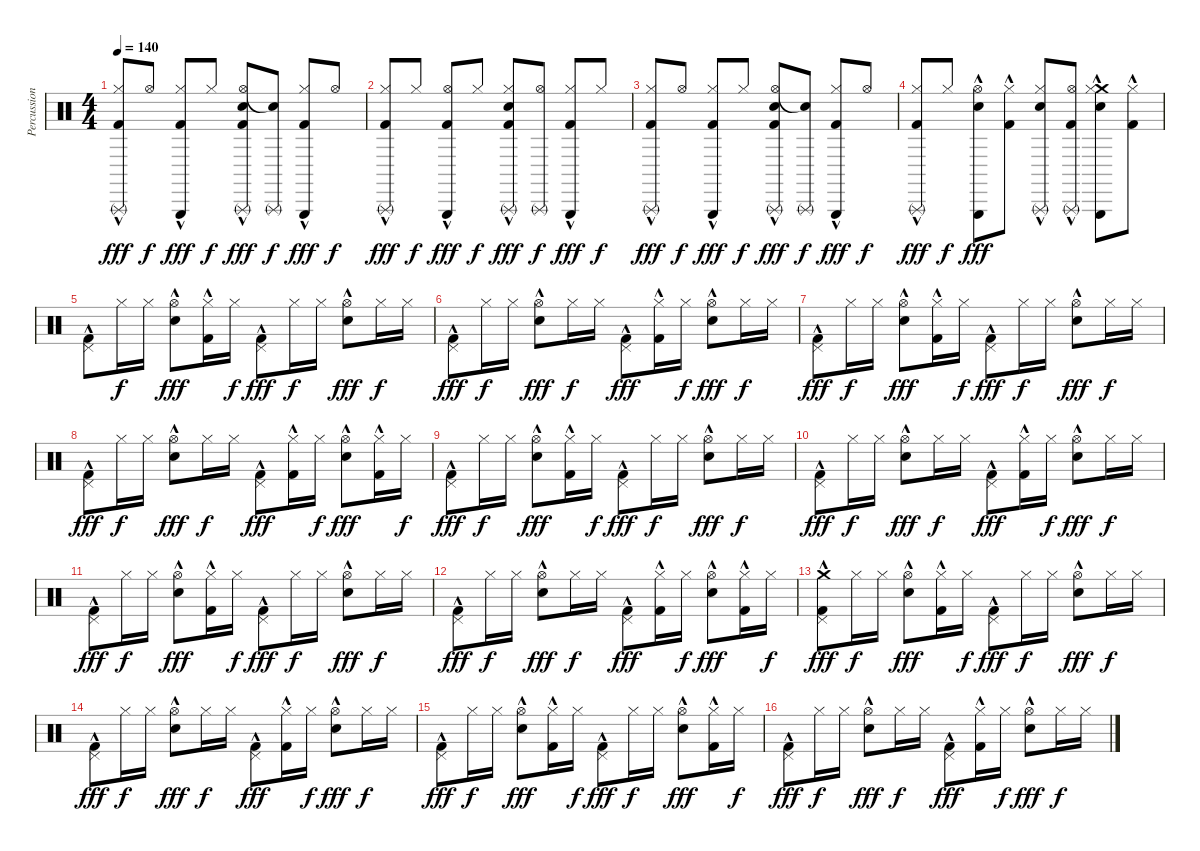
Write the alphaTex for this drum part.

\track ("Percussion" "Percussion") {instrument percussion}
\staff {score}
\articulation defaults
\ts (4 4)
\tempo 140
\clef neutral
\ks c
("Triangle (rnute)" "Hi-Hat (closed)" "Kick (hit) 2"{hac}).8{dy fff} "Hi-Hat (open)".8{dy f} ("Triangle (hit)" "Hi-Hat (closed)" "Kick (hit) 2"{hac}).8{dy fff} "Hi-Hat (closed)".8{dy f} ("Triangle (rnute)" "Hi-Hat (open)" "Electric Snare (hit)"{hac} "Kick (hit) 2"{hac}).8{dy fff} ("Triangle (rnute)" "Snare (hit)"{t}).8{dy f} ("Triangle (hit)" "Hi-Hat (closed)" "Kick (hit) 2"{hac}).8{dy fff} "Hi-Hat (open)".8{dy f} |
("Triangle (rnute)" "Hi-Hat (closed)" "Kick (hit) 2"{hac}).8{dy fff} "Hi-Hat (closed)".8{dy f} ("Triangle (hit)" "Hi-Hat (open)" "Kick (hit) 2"{hac}).8{dy fff} "Hi-Hat (closed)".8{dy f} ("Triangle (rnute)" "Hi-Hat (closed)" "Electric Snare (hit)"{hac} "Kick (hit) 2"{hac}).8{dy fff} ("Triangle (rnute)" "Hi-Hat (open)").8{dy f} ("Triangle (hit)" "Hi-Hat (closed)" "Kick (hit) 2"{hac}).8{dy fff} "Hi-Hat (closed)".8{dy f} |
("Triangle (rnute)" "Hi-Hat (closed)" "Kick (hit) 2"{hac}).8{dy fff} "Hi-Hat (open)".8{dy f} ("Triangle (hit)" "Hi-Hat (closed)" "Kick (hit) 2"{hac}).8{dy fff} "Hi-Hat (closed)".8{dy f} ("Triangle (rnute)" "Hi-Hat (open)" "Electric Snare (hit)"{hac} "Kick (hit) 2"{hac}).8{dy fff} ("Triangle (rnute)" "Snare (hit)"{t}).8{dy f} ("Triangle (hit)" "Hi-Hat (closed)" "Kick (hit) 2"{hac}).8{dy fff} "Hi-Hat (open)".8{dy f} |
("Triangle (rnute)" "Hi-Hat (closed)" "Kick (hit) 2"{hac}).8{dy fff} "Hi-Hat (closed)".8{dy f} ("Triangle (hit)" "Hi-Hat (open)" "Electric Snare (hit)"{hac}).8{dy fff} ("Hi-Hat (closed)" "Kick (hit) 2"{hac}).8 ("Triangle (rnute)" "Hi-Hat (closed)" "Electric Snare (hit)"{hac}).8 ("Triangle (rnute)" "Hi-Hat (open)" "Kick (hit) 2"{hac}).8 ("Crash medium (hit)"{hac} "Triangle (hit)" "Hi-Hat (closed)" "Electric Snare (hit)"{hac}).8 ("Hi-Hat (closed)" "Kick (hit) 2"{hac}).8 |
("Pedal Hi-Hat (hit)" "Kick (hit) 2"{hac}).8 "Hi-Hat (closed)".16{dy f} "Hi-Hat (closed)".16 ("Hi-Hat (open)" "Electric Snare (hit)"{hac}).8{dy fff} ("Hi-Hat (closed)" "Kick (hit) 2"{hac}).16 "Hi-Hat (closed)".16{dy f} ("Pedal Hi-Hat (hit)" "Kick (hit) 2"{hac}).8{dy fff} "Hi-Hat (closed)".16{dy f} "Hi-Hat (closed)".16 ("Hi-Hat (open)" "Electric Snare (hit)"{hac}).8{dy fff} "Hi-Hat (closed)".16{dy f} "Hi-Hat (closed)".16 |
("Pedal Hi-Hat (hit)" "Kick (hit) 2"{hac}).8{dy fff} "Hi-Hat (closed)".16{dy f} "Hi-Hat (closed)".16 ("Hi-Hat (open)" "Electric Snare (hit)"{hac}).8{dy fff} "Hi-Hat (closed)".16{dy f} "Hi-Hat (closed)".16 ("Pedal Hi-Hat (hit)" "Kick (hit) 2"{hac}).8{dy fff} ("Hi-Hat (closed)" "Kick (hit) 2"{hac}).16 "Hi-Hat (closed)".16{dy f} ("Hi-Hat (open)" "Electric Snare (hit)"{hac}).8{dy fff} "Hi-Hat (closed)".16{dy f} "Hi-Hat (closed)".16 |
("Pedal Hi-Hat (hit)" "Kick (hit) 2"{hac}).8{dy fff} "Hi-Hat (closed)".16{dy f} "Hi-Hat (closed)".16 ("Hi-Hat (open)" "Electric Snare (hit)"{hac}).8{dy fff} ("Hi-Hat (closed)" "Kick (hit) 2"{hac}).16 "Hi-Hat (closed)".16{dy f} ("Pedal Hi-Hat (hit)" "Kick (hit) 2"{hac}).8{dy fff} "Hi-Hat (closed)".16{dy f} "Hi-Hat (closed)".16 ("Hi-Hat (open)" "Electric Snare (hit)"{hac}).8{dy fff} "Hi-Hat (closed)".16{dy f} "Hi-Hat (closed)".16 |
("Pedal Hi-Hat (hit)" "Kick (hit) 2"{hac}).8{dy fff} "Hi-Hat (closed)".16{dy f} "Hi-Hat (closed)".16 ("Hi-Hat (open)" "Electric Snare (hit)"{hac}).8{dy fff} "Hi-Hat (closed)".16{dy f} "Hi-Hat (closed)".16 ("Pedal Hi-Hat (hit)" "Kick (hit) 2"{hac}).8{dy fff} ("Hi-Hat (closed)" "Kick (hit) 2"{hac}).16 "Hi-Hat (closed)".16{dy f} ("Hi-Hat (open)" "Electric Snare (hit)"{hac}).8{dy fff} ("Hi-Hat (closed)" "Kick (hit) 2"{hac}).16 "Hi-Hat (closed)".16{dy f} |
("Pedal Hi-Hat (hit)" "Kick (hit) 2"{hac}).8{dy fff} "Hi-Hat (closed)".16{dy f} "Hi-Hat (closed)".16 ("Hi-Hat (open)" "Electric Snare (hit)"{hac}).8{dy fff} ("Hi-Hat (closed)" "Kick (hit) 2"{hac}).16 "Hi-Hat (closed)".16{dy f} ("Pedal Hi-Hat (hit)" "Kick (hit) 2"{hac}).8{dy fff} "Hi-Hat (closed)".16{dy f} "Hi-Hat (closed)".16 ("Hi-Hat (open)" "Electric Snare (hit)"{hac}).8{dy fff} "Hi-Hat (closed)".16{dy f} "Hi-Hat (closed)".16 |
("Pedal Hi-Hat (hit)" "Kick (hit) 2"{hac}).8{dy fff} "Hi-Hat (closed)".16{dy f} "Hi-Hat (closed)".16 ("Hi-Hat (open)" "Electric Snare (hit)"{hac}).8{dy fff} "Hi-Hat (closed)".16{dy f} "Hi-Hat (closed)".16 ("Pedal Hi-Hat (hit)" "Kick (hit) 2"{hac}).8{dy fff} ("Hi-Hat (closed)" "Kick (hit) 2"{hac}).16 "Hi-Hat (closed)".16{dy f} ("Hi-Hat (open)" "Electric Snare (hit)"{hac}).8{dy fff} "Hi-Hat (closed)".16{dy f} "Hi-Hat (closed)".16 |
("Pedal Hi-Hat (hit)" "Kick (hit) 2"{hac}).8{dy fff} "Hi-Hat (closed)".16{dy f} "Hi-Hat (closed)".16 ("Hi-Hat (open)" "Electric Snare (hit)"{hac}).8{dy fff} ("Hi-Hat (closed)" "Kick (hit) 2"{hac}).16 "Hi-Hat (closed)".16{dy f} ("Pedal Hi-Hat (hit)" "Kick (hit) 2"{hac}).8{dy fff} "Hi-Hat (closed)".16{dy f} "Hi-Hat (closed)".16 ("Hi-Hat (open)" "Electric Snare (hit)"{hac}).8{dy fff} "Hi-Hat (closed)".16{dy f} "Hi-Hat (closed)".16 |
("Pedal Hi-Hat (hit)" "Kick (hit) 2"{hac}).8{dy fff} "Hi-Hat (closed)".16{dy f} "Hi-Hat (closed)".16 ("Hi-Hat (open)" "Electric Snare (hit)"{hac}).8{dy fff} "Hi-Hat (closed)".16{dy f} "Hi-Hat (closed)".16 ("Pedal Hi-Hat (hit)" "Kick (hit) 2"{hac}).8{dy fff} ("Hi-Hat (closed)" "Kick (hit) 2"{hac}).16 "Hi-Hat (closed)".16{dy f} ("Hi-Hat (open)" "Electric Snare (hit)"{hac}).8{dy fff} ("Hi-Hat (closed)" "Kick (hit) 2"{hac}).16 "Hi-Hat (closed)".16{dy f} |
("Crash medium (hit)"{hac} "Pedal Hi-Hat (hit)" "Kick (hit) 2"{hac}).8{dy fff} "Hi-Hat (closed)".16{dy f} "Hi-Hat (closed)".16 ("Hi-Hat (open)" "Electric Snare (hit)"{hac}).8{dy fff} ("Hi-Hat (closed)" "Kick (hit) 2"{hac}).16 "Hi-Hat (closed)".16{dy f} ("Pedal Hi-Hat (hit)" "Kick (hit) 2"{hac}).8{dy fff} "Hi-Hat (closed)".16{dy f} "Hi-Hat (closed)".16 ("Hi-Hat (open)" "Electric Snare (hit)"{hac}).8{dy fff} "Hi-Hat (closed)".16{dy f} "Hi-Hat (closed)".16 |
("Pedal Hi-Hat (hit)" "Kick (hit) 2"{hac}).8{dy fff} "Hi-Hat (closed)".16{dy f} "Hi-Hat (closed)".16 ("Hi-Hat (open)" "Electric Snare (hit)"{hac}).8{dy fff} "Hi-Hat (closed)".16{dy f} "Hi-Hat (closed)".16 ("Pedal Hi-Hat (hit)" "Kick (hit) 2"{hac}).8{dy fff} ("Hi-Hat (closed)" "Kick (hit) 2"{hac}).16 "Hi-Hat (closed)".16{dy f} ("Hi-Hat (open)" "Electric Snare (hit)"{hac}).8{dy fff} "Hi-Hat (closed)".16{dy f} "Hi-Hat (closed)".16 |
("Pedal Hi-Hat (hit)" "Kick (hit) 2"{hac}).8{dy fff} "Hi-Hat (closed)".16{dy f} "Hi-Hat (closed)".16 ("Hi-Hat (open)" "Electric Snare (hit)"{hac}).8{dy fff} ("Hi-Hat (closed)" "Kick (hit) 2"{hac}).16 "Hi-Hat (closed)".16{dy f} ("Pedal Hi-Hat (hit)" "Kick (hit) 2"{hac}).8{dy fff} "Hi-Hat (closed)".16{dy f} "Hi-Hat (closed)".16 ("Hi-Hat (open)" "Electric Snare (hit)"{hac}).8{dy fff} ("Hi-Hat (closed)" "Kick (hit) 2"{hac}).16 "Hi-Hat (closed)".16{dy f} |
("Pedal Hi-Hat (hit)" "Kick (hit) 2"{hac}).8{dy fff} "Hi-Hat (closed)".16{dy f} "Hi-Hat (closed)".16 ("Hi-Hat (open)" "Electric Snare (hit)"{hac}).8{dy fff} "Hi-Hat (closed)".16{dy f} "Hi-Hat (closed)".16 ("Pedal Hi-Hat (hit)" "Kick (hit) 2"{hac}).8{dy fff} ("Hi-Hat (closed)" "Kick (hit) 2"{hac}).16 "Hi-Hat (closed)".16{dy f} ("Hi-Hat (open)" "Electric Snare (hit)"{hac}).8{dy fff} "Hi-Hat (closed)".16{dy f} "Hi-Hat (closed)".16
